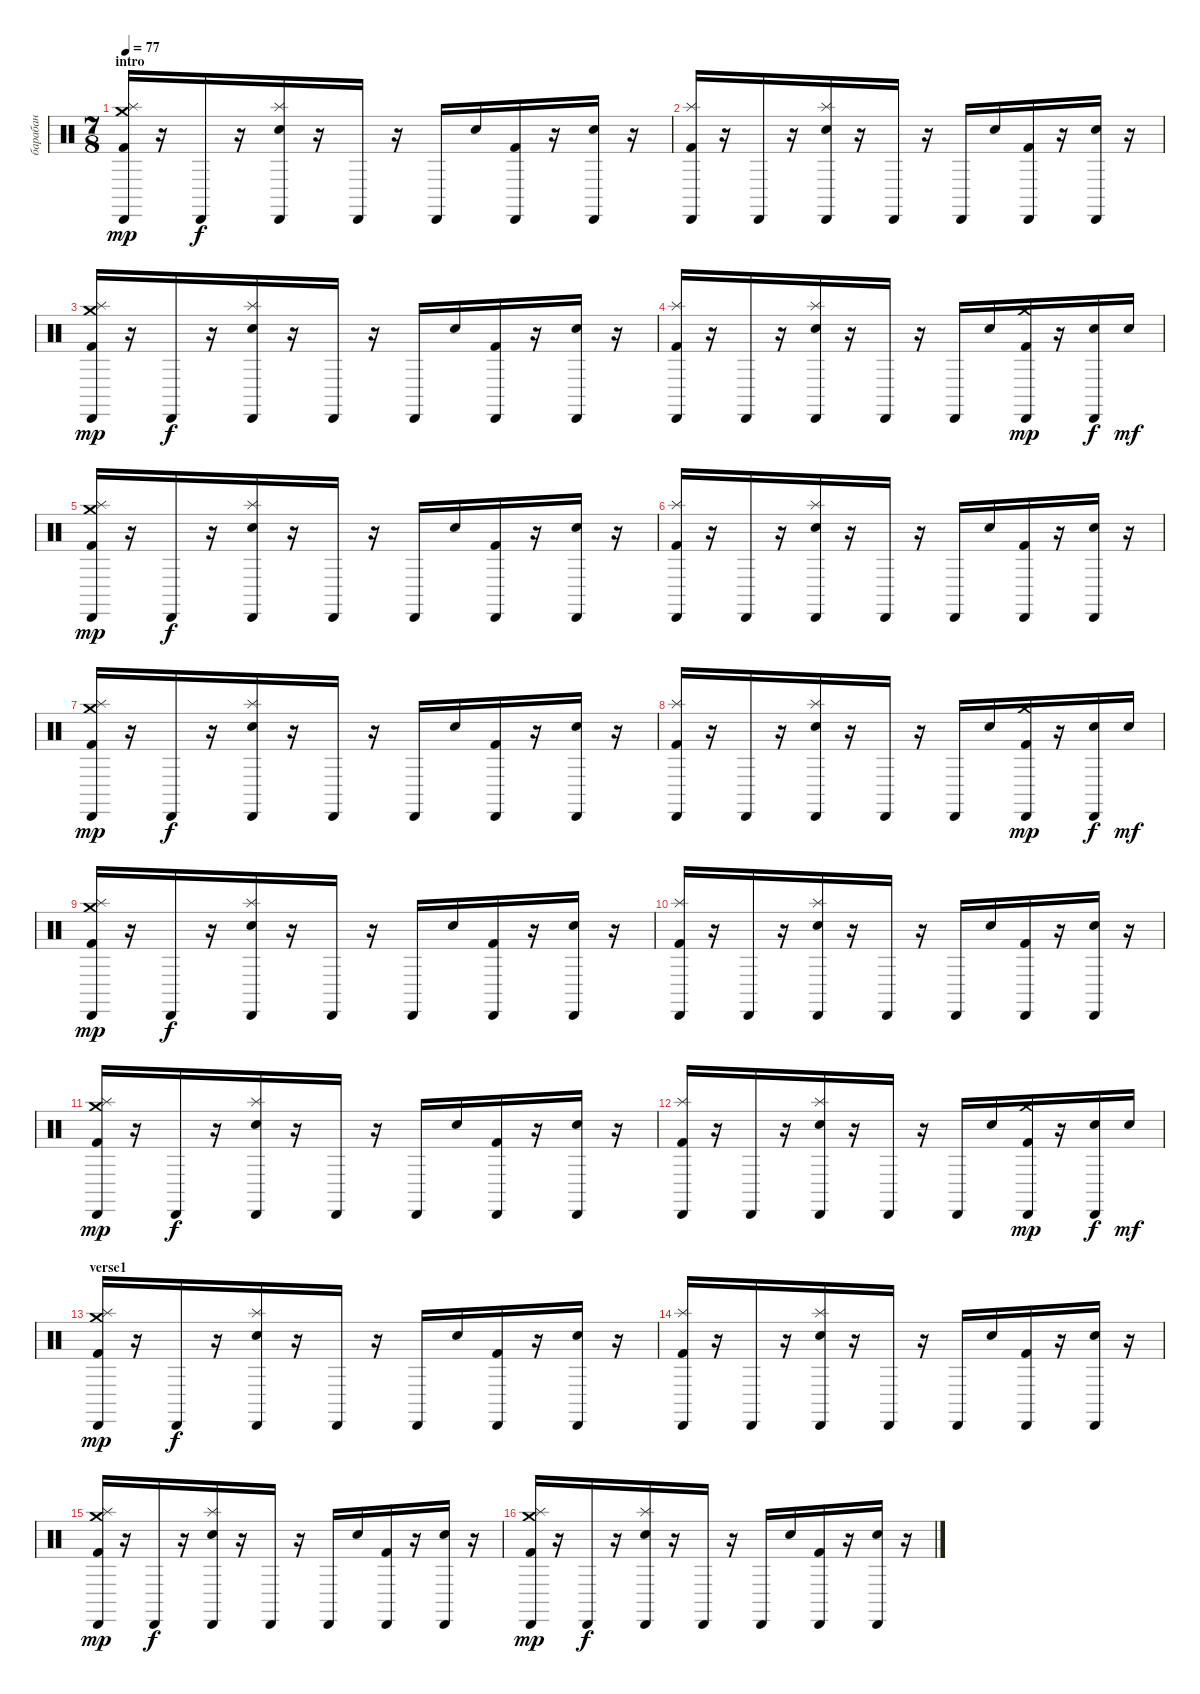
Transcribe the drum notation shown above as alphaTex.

\track ("барабан" "барабан") {instrument percussion}
\staff {score}
\articulation defaults
\ts (7 8)
\section ("" "intro")
\tempo 77
\clef neutral
\ks c
("Cabasa (hit)" "Splash (hit)" "Crash medium (hit)" "Kick (hit) 2").16{dy mp} r.16 "Cabasa (hit)".16{dy f} r.16 ("Cabasa (hit)" "Splash (hit)" "Electric Snare (hit)").16 r.16 "Cabasa (hit)".16 r.16 "Cabasa (hit)".16 "Electric Snare (hit)".16 ("Cabasa (hit)" "Kick (hit) 2").16 r.16 ("Cabasa (hit)" "Electric Snare (hit)").16 r.16 |
("Cabasa (hit)" "Splash (hit)" "Kick (hit) 2").16 r.16 "Cabasa (hit)".16 r.16 ("Cabasa (hit)" "Splash (hit)" "Electric Snare (hit)").16 r.16 "Cabasa (hit)".16 r.16 "Cabasa (hit)".16 "Electric Snare (hit)".16 ("Cabasa (hit)" "Kick (hit) 2").16 r.16 ("Cabasa (hit)" "Electric Snare (hit)").16 r.16 |
("Cabasa (hit)" "Splash (hit)" "Crash medium (hit)" "Kick (hit) 2").16{dy mp} r.16 "Cabasa (hit)".16{dy f} r.16 ("Cabasa (hit)" "Splash (hit)" "Electric Snare (hit)").16 r.16 "Cabasa (hit)".16 r.16 "Cabasa (hit)".16 "Electric Snare (hit)".16 ("Cabasa (hit)" "Kick (hit) 2").16 r.16 ("Cabasa (hit)" "Electric Snare (hit)").16 r.16 |
("Cabasa (hit)" "Splash (hit)" "Kick (hit) 2").16 r.16 "Cabasa (hit)".16 r.16 ("Cabasa (hit)" "Splash (hit)" "Electric Snare (hit)").16 r.16 "Cabasa (hit)".16 r.16 "Cabasa (hit)".16 "Electric Snare (hit)".16 ("Cabasa (hit)" "Crash medium (hit)" "Kick (hit) 2").16{dy mp} r.16 ("Cabasa (hit)" "Electric Snare (hit)").16{dy f} "Electric Snare (hit)".16{dy mf} |
("Cabasa (hit)" "Splash (hit)" "Crash medium (hit)" "Kick (hit) 2").16{dy mp} r.16 "Cabasa (hit)".16{dy f} r.16 ("Cabasa (hit)" "Splash (hit)" "Electric Snare (hit)").16 r.16 "Cabasa (hit)".16 r.16 "Cabasa (hit)".16 "Electric Snare (hit)".16 ("Cabasa (hit)" "Kick (hit) 2").16 r.16 ("Cabasa (hit)" "Electric Snare (hit)").16 r.16 |
("Cabasa (hit)" "Splash (hit)" "Kick (hit) 2").16 r.16 "Cabasa (hit)".16 r.16 ("Cabasa (hit)" "Splash (hit)" "Electric Snare (hit)").16 r.16 "Cabasa (hit)".16 r.16 "Cabasa (hit)".16 "Electric Snare (hit)".16 ("Cabasa (hit)" "Kick (hit) 2").16 r.16 ("Cabasa (hit)" "Electric Snare (hit)").16 r.16 |
("Cabasa (hit)" "Splash (hit)" "Crash medium (hit)" "Kick (hit) 2").16{dy mp} r.16 "Cabasa (hit)".16{dy f} r.16 ("Cabasa (hit)" "Splash (hit)" "Electric Snare (hit)").16 r.16 "Cabasa (hit)".16 r.16 "Cabasa (hit)".16 "Electric Snare (hit)".16 ("Cabasa (hit)" "Kick (hit) 2").16 r.16 ("Cabasa (hit)" "Electric Snare (hit)").16 r.16 |
("Cabasa (hit)" "Splash (hit)" "Kick (hit) 2").16 r.16 "Cabasa (hit)".16 r.16 ("Cabasa (hit)" "Splash (hit)" "Electric Snare (hit)").16 r.16 "Cabasa (hit)".16 r.16 "Cabasa (hit)".16 "Electric Snare (hit)".16 ("Cabasa (hit)" "Crash medium (hit)" "Kick (hit) 2").16{dy mp} r.16 ("Cabasa (hit)" "Electric Snare (hit)").16{dy f} "Electric Snare (hit)".16{dy mf} |
("Cabasa (hit)" "Splash (hit)" "Crash medium (hit)" "Kick (hit) 2").16{dy mp} r.16 "Cabasa (hit)".16{dy f} r.16 ("Cabasa (hit)" "Splash (hit)" "Electric Snare (hit)").16 r.16 "Cabasa (hit)".16 r.16 "Cabasa (hit)".16 "Electric Snare (hit)".16 ("Cabasa (hit)" "Kick (hit) 2").16 r.16 ("Cabasa (hit)" "Electric Snare (hit)").16 r.16 |
("Cabasa (hit)" "Splash (hit)" "Kick (hit) 2").16 r.16 "Cabasa (hit)".16 r.16 ("Cabasa (hit)" "Splash (hit)" "Electric Snare (hit)").16 r.16 "Cabasa (hit)".16 r.16 "Cabasa (hit)".16 "Electric Snare (hit)".16 ("Cabasa (hit)" "Kick (hit) 2").16 r.16 ("Cabasa (hit)" "Electric Snare (hit)").16 r.16 |
("Cabasa (hit)" "Splash (hit)" "Crash medium (hit)" "Kick (hit) 2").16{dy mp} r.16 "Cabasa (hit)".16{dy f} r.16 ("Cabasa (hit)" "Splash (hit)" "Electric Snare (hit)").16 r.16 "Cabasa (hit)".16 r.16 "Cabasa (hit)".16 "Electric Snare (hit)".16 ("Cabasa (hit)" "Kick (hit) 2").16 r.16 ("Cabasa (hit)" "Electric Snare (hit)").16 r.16 |
("Cabasa (hit)" "Splash (hit)" "Kick (hit) 2").16 r.16 "Cabasa (hit)".16 r.16 ("Cabasa (hit)" "Splash (hit)" "Electric Snare (hit)").16 r.16 "Cabasa (hit)".16 r.16 "Cabasa (hit)".16 "Electric Snare (hit)".16 ("Cabasa (hit)" "Crash medium (hit)" "Kick (hit) 2").16{dy mp} r.16 ("Cabasa (hit)" "Electric Snare (hit)").16{dy f} "Electric Snare (hit)".16{dy mf} |
\section ("" "verse1")
("Cabasa (hit)" "Splash (hit)" "Crash medium (hit)" "Kick (hit) 2").16{dy mp} r.16 "Cabasa (hit)".16{dy f} r.16 ("Cabasa (hit)" "Splash (hit)" "Electric Snare (hit)").16 r.16 "Cabasa (hit)".16 r.16 "Cabasa (hit)".16 "Electric Snare (hit)".16 ("Cabasa (hit)" "Kick (hit) 2").16 r.16 ("Cabasa (hit)" "Electric Snare (hit)").16 r.16 |
("Cabasa (hit)" "Splash (hit)" "Kick (hit) 2").16 r.16 "Cabasa (hit)".16 r.16 ("Cabasa (hit)" "Splash (hit)" "Electric Snare (hit)").16 r.16 "Cabasa (hit)".16 r.16 "Cabasa (hit)".16 "Electric Snare (hit)".16 ("Cabasa (hit)" "Kick (hit) 2").16 r.16 ("Cabasa (hit)" "Electric Snare (hit)").16 r.16 |
("Cabasa (hit)" "Splash (hit)" "Crash medium (hit)" "Kick (hit) 2").16{dy mp} r.16 "Cabasa (hit)".16{dy f} r.16 ("Cabasa (hit)" "Splash (hit)" "Electric Snare (hit)").16 r.16 "Cabasa (hit)".16 r.16 "Cabasa (hit)".16 "Electric Snare (hit)".16 ("Cabasa (hit)" "Kick (hit) 2").16 r.16 ("Cabasa (hit)" "Electric Snare (hit)").16 r.16 |
("Cabasa (hit)" "Splash (hit)" "Crash medium (hit)" "Kick (hit) 2").16{dy mp} r.16 "Cabasa (hit)".16{dy f} r.16 ("Cabasa (hit)" "Splash (hit)" "Electric Snare (hit)").16 r.16 "Cabasa (hit)".16 r.16 "Cabasa (hit)".16 "Electric Snare (hit)".16 ("Cabasa (hit)" "Kick (hit) 2").16 r.16 ("Cabasa (hit)" "Electric Snare (hit)").16 r.16
